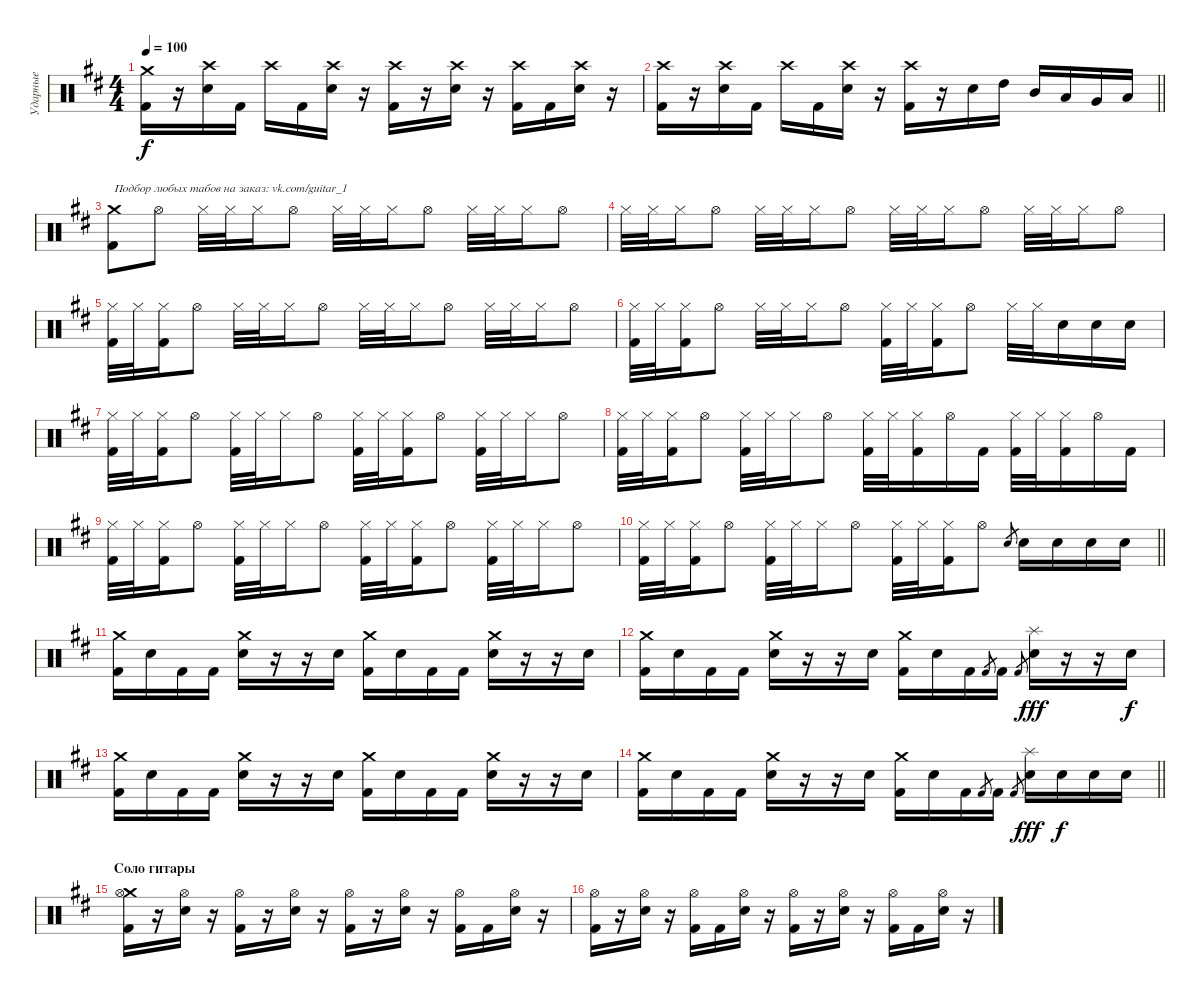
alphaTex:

\track ("Ударные" "Ударные") {instrument percussion}
\staff {score}
\articulation defaults
\ts (4 4)
\tempo 100
\clef neutral
\ks d
("Crash medium (hit)" "Kick (hit) 2").16{dy f} r.16 ("Electric Snare (hit)" "Crash high (hit)").16 "Kick (hit) 2".16 "Crash high (hit)".16 "Kick (hit) 2".16 ("Electric Snare (hit)" "Crash high (hit)").16 r.16 ("Kick (hit) 2" "Crash high (hit)").16 r.16 ("Electric Snare (hit)" "Crash high (hit)").16 r.16 ("Kick (hit) 2" "Crash high (hit)").16 "Kick (hit) 2".16 ("Electric Snare (hit)" "Crash high (hit)").16 r.16 |
\barLineRight lightlight
("Kick (hit) 2" "Crash high (hit)").16 r.16 ("Electric Snare (hit)" "Crash high (hit)").16 "Kick (hit) 2".16 "Crash high (hit)".16 "Kick (hit) 2".16 ("Electric Snare (hit)" "Crash high (hit)").16 r.16 ("Kick (hit) 2" "Crash high (hit)").16 r.16 "Electric Snare (hit)".16 "High Tom (hit)".16 "Mid Tom (hit)".16 "Low Tom (hit)".16 "Very Low Tom (hit)".16 "Low Floor Tom (hit)".16 |
\section ("" "")
("Crash medium (hit)" "Kick (hit) 2").8{txt "Подбор любых табов на заказ: vk.com/guitar_1"} "Hi-Hat (open)".8 "Hi-Hat (closed)".32 "Hi-Hat (closed)".32 "Hi-Hat (closed)".16 "Hi-Hat (open)".8 "Hi-Hat (closed)".32 "Hi-Hat (closed)".32 "Hi-Hat (closed)".16 "Hi-Hat (open)".8 "Hi-Hat (closed)".32 "Hi-Hat (closed)".32 "Hi-Hat (closed)".16 "Hi-Hat (open)".8 |
"Hi-Hat (closed)".32 "Hi-Hat (closed)".32 "Hi-Hat (closed)".16 "Hi-Hat (open)".8 "Hi-Hat (closed)".32 "Hi-Hat (closed)".32 "Hi-Hat (closed)".16 "Hi-Hat (open)".8 "Hi-Hat (closed)".32 "Hi-Hat (closed)".32 "Hi-Hat (closed)".16 "Hi-Hat (open)".8 "Hi-Hat (closed)".32 "Hi-Hat (closed)".32 "Hi-Hat (closed)".16 "Hi-Hat (open)".8 |
("Hi-Hat (closed)" "Kick (hit) 2").32 "Hi-Hat (closed)".32 ("Hi-Hat (closed)" "Kick (hit) 2").16 "Hi-Hat (open)".8 "Hi-Hat (closed)".32 "Hi-Hat (closed)".32 "Hi-Hat (closed)".16 "Hi-Hat (open)".8 "Hi-Hat (closed)".32 "Hi-Hat (closed)".32 "Hi-Hat (closed)".16 "Hi-Hat (open)".8 "Hi-Hat (closed)".32 "Hi-Hat (closed)".32 "Hi-Hat (closed)".16 "Hi-Hat (open)".8 |
("Hi-Hat (closed)" "Kick (hit) 2").32 "Hi-Hat (closed)".32 ("Hi-Hat (closed)" "Kick (hit) 2").16 "Hi-Hat (open)".8 "Hi-Hat (closed)".32 "Hi-Hat (closed)".32 "Hi-Hat (closed)".16 "Hi-Hat (open)".8 ("Hi-Hat (closed)" "Kick (hit) 2").32 "Hi-Hat (closed)".32 ("Hi-Hat (closed)" "Kick (hit) 2").16 "Hi-Hat (open)".8 "Hi-Hat (closed)".32 "Hi-Hat (closed)".32 "Electric Snare (hit)".16 "Electric Snare (hit)".16 "Electric Snare (hit)".16 |
("Hi-Hat (closed)" "Kick (hit) 2").32 "Hi-Hat (closed)".32 ("Hi-Hat (closed)" "Kick (hit) 2").16 "Hi-Hat (open)".8 ("Hi-Hat (closed)" "Kick (hit) 2").32 "Hi-Hat (closed)".32 "Hi-Hat (closed)".16 "Hi-Hat (open)".8 ("Hi-Hat (closed)" "Kick (hit) 2").32 "Hi-Hat (closed)".32 ("Hi-Hat (closed)" "Kick (hit) 2").16 "Hi-Hat (open)".8 ("Hi-Hat (closed)" "Kick (hit) 2").32 "Hi-Hat (closed)".32 "Hi-Hat (closed)".16 "Hi-Hat (open)".8 |
("Hi-Hat (closed)" "Kick (hit) 2").32 "Hi-Hat (closed)".32 ("Hi-Hat (closed)" "Kick (hit) 2").16 "Hi-Hat (open)".8 ("Hi-Hat (closed)" "Kick (hit) 2").32 "Hi-Hat (closed)".32 "Hi-Hat (closed)".16 "Hi-Hat (open)".8 ("Hi-Hat (closed)" "Kick (hit) 2").32 "Hi-Hat (closed)".32 ("Hi-Hat (closed)" "Kick (hit) 2").16 "Hi-Hat (open)".16 "Kick (hit) 2".16 ("Hi-Hat (closed)" "Kick (hit) 2").32 "Hi-Hat (closed)".32 ("Hi-Hat (closed)" "Kick (hit) 2").16 "Hi-Hat (open)".16 "Kick (hit) 2".16 |
("Hi-Hat (closed)" "Kick (hit) 2").32 "Hi-Hat (closed)".32 ("Hi-Hat (closed)" "Kick (hit) 2").16 "Hi-Hat (open)".8 ("Hi-Hat (closed)" "Kick (hit) 2").32 "Hi-Hat (closed)".32 "Hi-Hat (closed)".16 "Hi-Hat (open)".8 ("Hi-Hat (closed)" "Kick (hit) 2").32 "Hi-Hat (closed)".32 ("Hi-Hat (closed)" "Kick (hit) 2").16 "Hi-Hat (open)".8 ("Hi-Hat (closed)" "Kick (hit) 2").32 "Hi-Hat (closed)".32 "Hi-Hat (closed)".16 "Hi-Hat (open)".8 |
\barLineRight lightlight
("Hi-Hat (closed)" "Kick (hit) 2").32 "Hi-Hat (closed)".32 ("Hi-Hat (closed)" "Kick (hit) 2").16 "Hi-Hat (open)".8 ("Hi-Hat (closed)" "Kick (hit) 2").32 "Hi-Hat (closed)".32 "Hi-Hat (closed)".16 "Hi-Hat (open)".8 ("Hi-Hat (closed)" "Kick (hit) 2").32 "Hi-Hat (closed)".32 ("Hi-Hat (closed)" "Kick (hit) 2").16 "Hi-Hat (open)".8 "Electric Snare (hit)".8{gr} "Electric Snare (hit)".16 "Electric Snare (hit)".16 "Electric Snare (hit)".16 "Electric Snare (hit)".16 |
\section ("" "")
("Crash medium (hit)" "Kick (hit) 2").16 "Electric Snare (hit)".16 "Kick (hit) 2".16 "Kick (hit) 2".16 ("Crash medium (hit)" "Electric Snare (hit)").16 r.16 r.16 "Electric Snare (hit)".16 ("Crash medium (hit)" "Kick (hit) 2").16 "Electric Snare (hit)".16 "Kick (hit) 2".16 "Kick (hit) 2".16 ("Crash medium (hit)" "Electric Snare (hit)").16 r.16 r.16 "Electric Snare (hit)".16 |
("Crash medium (hit)" "Kick (hit) 2").16 "Electric Snare (hit)".16 "Kick (hit) 2".16 "Kick (hit) 2".16 ("Crash medium (hit)" "Electric Snare (hit)").16 r.16 r.16 "Electric Snare (hit)".16 ("Crash medium (hit)" "Kick (hit) 2").16 "Electric Snare (hit)".16 "Kick (hit) 2".16 "Kick (hit) 2".8{gr} "Kick (hit) 2".16 "Kick (hit) 2".8{gr} ("Splash (hit)" "Electric Snare (hit)").16{dy fff} r.16 r.16 "Electric Snare (hit)".16{dy f} |
("Crash medium (hit)" "Kick (hit) 2").16 "Electric Snare (hit)".16 "Kick (hit) 2".16 "Kick (hit) 2".16 ("Crash medium (hit)" "Electric Snare (hit)").16 r.16 r.16 "Electric Snare (hit)".16 ("Crash medium (hit)" "Kick (hit) 2").16 "Electric Snare (hit)".16 "Kick (hit) 2".16 "Kick (hit) 2".16 ("Crash medium (hit)" "Electric Snare (hit)").16 r.16 r.16 "Electric Snare (hit)".16 |
\barLineRight lightlight
("Crash medium (hit)" "Kick (hit) 2").16 "Electric Snare (hit)".16 "Kick (hit) 2".16 "Kick (hit) 2".16 ("Crash medium (hit)" "Electric Snare (hit)").16 r.16 r.16 "Electric Snare (hit)".16 ("Crash medium (hit)" "Kick (hit) 2").16 "Electric Snare (hit)".16 "Kick (hit) 2".16 "Kick (hit) 2".8{gr} "Kick (hit) 2".16 "Kick (hit) 2".8{gr} ("Splash (hit)" "Electric Snare (hit)").16{dy fff} "Electric Snare (hit)".16{dy f} "Electric Snare (hit)".16 "Electric Snare (hit)".16 |
\section ("" "Соло гитары")
("Crash medium (hit)" "Kick (hit) 2" "Hi-Hat (open)").16 r.16 ("Electric Snare (hit)" "Hi-Hat (open)").16 r.16 ("Kick (hit) 2" "Hi-Hat (open)").16 r.16 ("Electric Snare (hit)" "Hi-Hat (open)").16 r.16 ("Kick (hit) 2" "Hi-Hat (open)").16 r.16 ("Electric Snare (hit)" "Hi-Hat (open)").16 r.16 ("Kick (hit) 2" "Hi-Hat (open)").16 "Kick (hit) 2".16 ("Electric Snare (hit)" "Hi-Hat (open)").16 r.16 |
("Kick (hit) 2" "Hi-Hat (open)").16 r.16 ("Electric Snare (hit)" "Hi-Hat (open)").16 r.16 ("Kick (hit) 2" "Hi-Hat (open)").16 "Kick (hit) 2".16 ("Electric Snare (hit)" "Hi-Hat (open)").16 r.16 ("Kick (hit) 2" "Hi-Hat (open)").16 r.16 ("Electric Snare (hit)" "Hi-Hat (open)").16 r.16 ("Kick (hit) 2" "Hi-Hat (open)").16 "Kick (hit) 2".16 ("Electric Snare (hit)" "Hi-Hat (open)").16 r.16
